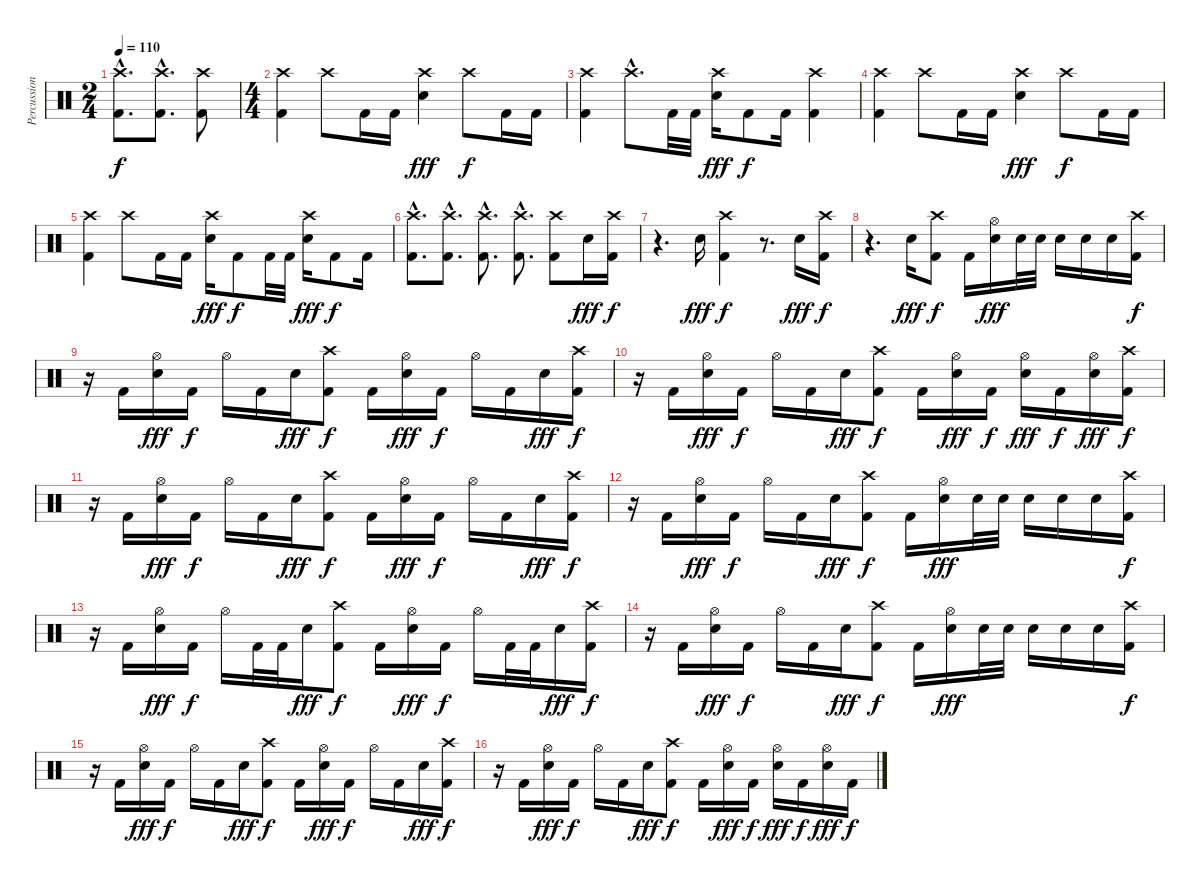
\track ("Percussions" "Percussion") {instrument percussion}
\staff {score}
\articulation defaults
\ts (2 4)
\tempo 110
\clef neutral
\ks c
("Crash high (hit)"{hac} "Kick (hit) 2"{hac}).8{d dy f} ("Crash high (hit)"{hac} "Kick (hit) 2"{hac}).8{d} ("Crash high (hit)" "Kick (hit) 2").8 |
\ts (4 4)
("Crash high (hit)" "Kick (hit) 2").4 "Crash high (hit)".8 "Kick (hit) 2".16 "Kick (hit) 2".16 ("Crash high (hit)" "Snare (hit) 2").4{dy fff} "Crash high (hit)".8{dy f} "Kick (hit) 2".16 "Kick (hit) 2".16 |
("Crash high (hit)" "Kick (hit) 2").4 "Crash high (hit)"{hac}.8{d} "Kick (hit) 2".32 "Kick (hit) 2".32 ("Crash high (hit)" "Snare (hit) 2").16{dy fff} "Kick (hit) 2".8{dy f} "Kick (hit) 2".16 ("Crash high (hit)" "Kick (hit) 2").4 |
("Crash high (hit)" "Kick (hit) 2").4 "Crash high (hit)".8 "Kick (hit) 2".16 "Kick (hit) 2".16 ("Crash high (hit)" "Snare (hit) 2").4{dy fff} "Crash high (hit)".8{dy f} "Kick (hit) 2".16 "Kick (hit) 2".16 |
("Crash high (hit)" "Kick (hit) 2").4 "Crash high (hit)".8 "Kick (hit) 2".16 "Kick (hit) 2".16 ("Crash high (hit)" "Snare (hit) 2").16{dy fff} "Kick (hit) 2".8{dy f} "Kick (hit) 2".32 "Kick (hit) 2".32 ("Crash high (hit)" "Snare (hit) 2").16{dy fff} "Kick (hit) 2".8{dy f} "Kick (hit) 2".16 |
("Crash high (hit)"{hac} "Kick (hit) 2"{hac}).8{d} ("Crash high (hit)"{hac} "Kick (hit) 2"{hac}).8{d} ("Crash high (hit)"{hac} "Kick (hit) 2"{hac}).8{d} ("Crash high (hit)"{hac} "Kick (hit) 2"{hac}).8{d} ("Crash high (hit)" "Kick (hit) 2").8 "Snare (hit) 2".16{dy fff} ("Crash high (hit)" "Kick (hit) 2").16{dy f} |
r.4{d} "Snare (hit) 2".16{dy fff} ("Crash high (hit)" "Kick (hit) 2").4{dy f} r.8{d} "Snare (hit) 2".16{dy fff} ("Crash high (hit)" "Kick (hit) 2").16{dy f} |
r.4{d} "Snare (hit) 2".16{dy fff} ("Crash high (hit)" "Kick (hit) 2").8{dy f} "Kick (hit) 2".16 ("Hi-Hat (open)" "Snare (hit) 2").16{dy fff} "Snare (hit) 2".32 "Snare (hit) 2".32 "Snare (hit) 2".16 "Snare (hit) 2".16 "Snare (hit) 2".16 ("Crash high (hit)" "Kick (hit) 2").16{dy f} |
r.16 "Kick (hit) 2".16 ("Hi-Hat (open)" "Snare (hit) 2").16{dy fff} "Kick (hit) 2".16{dy f} "Hi-Hat (open)".16 "Kick (hit) 2".16 "Snare (hit) 2".16{dy fff} ("Crash high (hit)" "Kick (hit) 2").8{dy f} "Kick (hit) 2".16 ("Hi-Hat (open)" "Snare (hit) 2").16{dy fff} "Kick (hit) 2".16{dy f} "Hi-Hat (open)".16 "Kick (hit) 2".16 "Snare (hit) 2".16{dy fff} ("Crash high (hit)" "Kick (hit) 2").16{dy f} |
r.16 "Kick (hit) 2".16 ("Hi-Hat (open)" "Snare (hit) 2").16{dy fff} "Kick (hit) 2".16{dy f} "Hi-Hat (open)".16 "Kick (hit) 2".16 "Snare (hit) 2".16{dy fff} ("Crash high (hit)" "Kick (hit) 2").8{dy f} "Kick (hit) 2".16 ("Hi-Hat (open)" "Snare (hit) 2").16{dy fff} "Kick (hit) 2".16{dy f} ("Hi-Hat (open)" "Snare (hit) 2").16{dy fff} "Kick (hit) 2".16{dy f} ("Hi-Hat (open)" "Snare (hit) 2").16{dy fff} ("Crash high (hit)" "Kick (hit) 2").16{dy f} |
r.16 "Kick (hit) 2".16 ("Hi-Hat (open)" "Snare (hit) 2").16{dy fff} "Kick (hit) 2".16{dy f} "Hi-Hat (open)".16 "Kick (hit) 2".16 "Snare (hit) 2".16{dy fff} ("Crash high (hit)" "Kick (hit) 2").8{dy f} "Kick (hit) 2".16 ("Hi-Hat (open)" "Snare (hit) 2").16{dy fff} "Kick (hit) 2".16{dy f} "Hi-Hat (open)".16 "Kick (hit) 2".16 "Snare (hit) 2".16{dy fff} ("Crash high (hit)" "Kick (hit) 2").16{dy f} |
r.16 "Kick (hit) 2".16 ("Hi-Hat (open)" "Snare (hit) 2").16{dy fff} "Kick (hit) 2".16{dy f} "Hi-Hat (open)".16 "Kick (hit) 2".16 "Snare (hit) 2".16{dy fff} ("Crash high (hit)" "Kick (hit) 2").8{dy f} "Kick (hit) 2".16 ("Hi-Hat (open)" "Snare (hit) 2").16{dy fff} "Snare (hit) 2".32 "Snare (hit) 2".32 "Snare (hit) 2".16 "Snare (hit) 2".16 "Snare (hit) 2".16 ("Crash high (hit)" "Kick (hit) 2").16{dy f} |
r.16 "Kick (hit) 2".16 ("Hi-Hat (open)" "Snare (hit) 2").16{dy fff} "Kick (hit) 2".16{dy f} "Hi-Hat (open)".16 "Kick (hit) 2".32 "Kick (hit) 2".32 "Snare (hit) 2".16{dy fff} ("Crash high (hit)" "Kick (hit) 2").8{dy f} "Kick (hit) 2".16 ("Hi-Hat (open)" "Snare (hit) 2").16{dy fff} "Kick (hit) 2".16{dy f} "Hi-Hat (open)".16 "Kick (hit) 2".32 "Kick (hit) 2".32 "Snare (hit) 2".16{dy fff} ("Crash high (hit)" "Kick (hit) 2").16{dy f} |
r.16 "Kick (hit) 2".16 ("Hi-Hat (open)" "Snare (hit) 2").16{dy fff} "Kick (hit) 2".16{dy f} "Hi-Hat (open)".16 "Kick (hit) 2".16 "Snare (hit) 2".16{dy fff} ("Crash high (hit)" "Kick (hit) 2").8{dy f} "Kick (hit) 2".16 ("Hi-Hat (open)" "Snare (hit) 2").16{dy fff} "Snare (hit) 2".32 "Snare (hit) 2".32 "Snare (hit) 2".16 "Snare (hit) 2".16 "Snare (hit) 2".16 ("Crash high (hit)" "Kick (hit) 2").16{dy f} |
r.16 "Kick (hit) 2".16 ("Hi-Hat (open)" "Snare (hit) 2").16{dy fff} "Kick (hit) 2".16{dy f} "Hi-Hat (open)".16 "Kick (hit) 2".16 "Snare (hit) 2".16{dy fff} ("Crash high (hit)" "Kick (hit) 2").8{dy f} "Kick (hit) 2".16 ("Hi-Hat (open)" "Snare (hit) 2").16{dy fff} "Kick (hit) 2".16{dy f} "Hi-Hat (open)".16 "Kick (hit) 2".16 "Snare (hit) 2".16{dy fff} ("Crash high (hit)" "Kick (hit) 2").16{dy f} |
r.16 "Kick (hit) 2".16 ("Hi-Hat (open)" "Snare (hit) 2").16{dy fff} "Kick (hit) 2".16{dy f} "Hi-Hat (open)".16 "Kick (hit) 2".16 "Snare (hit) 2".16{dy fff} ("Crash high (hit)" "Kick (hit) 2").8{dy f} "Kick (hit) 2".16 ("Hi-Hat (open)" "Snare (hit) 2").16{dy fff} "Kick (hit) 2".16{dy f} ("Hi-Hat (open)" "Snare (hit) 2").16{dy fff} "Kick (hit) 2".16{dy f} ("Hi-Hat (open)" "Snare (hit) 2").16{dy fff} "Kick (hit) 2".16{dy f}
